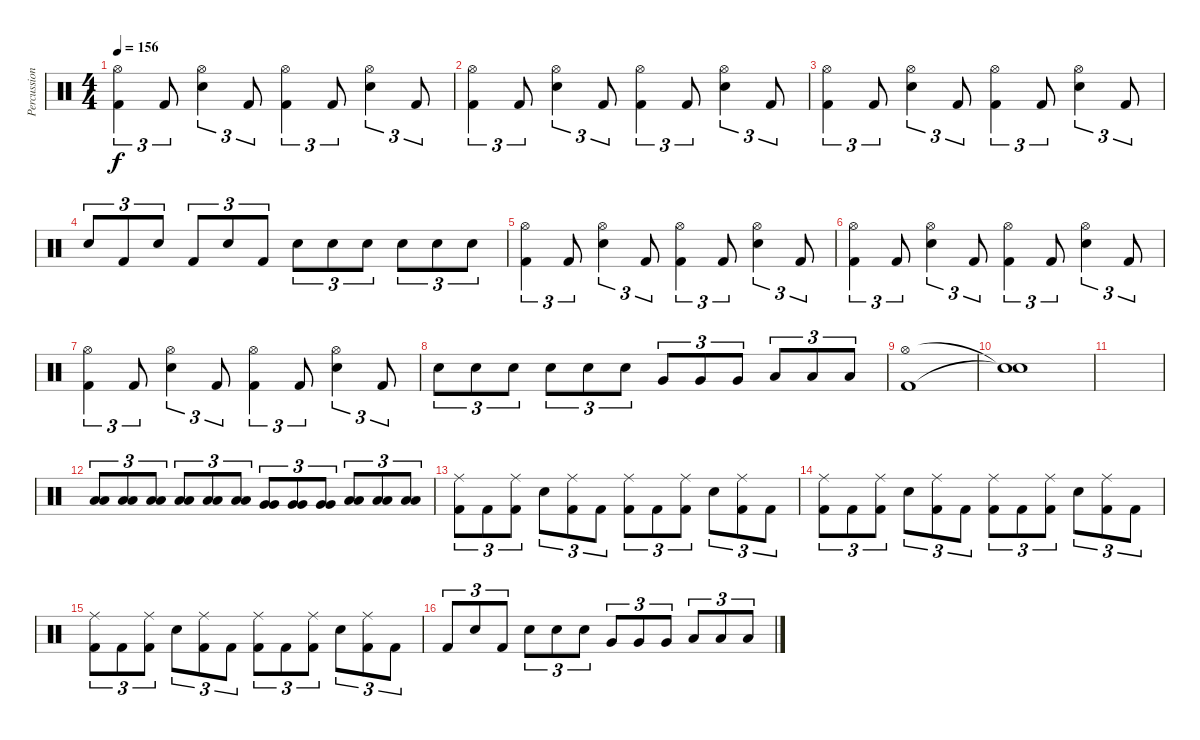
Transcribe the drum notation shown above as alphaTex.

\track ("Percussion" "Percussion") {instrument percussion}
\staff {score}
\articulation defaults
\ts (4 4)
\tempo 156
\clef neutral
\ks c
("Hi-Hat (open)" "Kick (hit) 2").4{tu (3 2) dy f} "Kick (hit) 2".8{tu (3 2)} ("Electric Snare (hit)" "Hi-Hat (open)").4{tu (3 2)} "Kick (hit) 2".8{tu (3 2)} ("Hi-Hat (open)" "Kick (hit) 2").4{tu (3 2)} "Kick (hit) 2".8{tu (3 2)} ("Electric Snare (hit)" "Hi-Hat (open)").4{tu (3 2)} "Kick (hit) 2".8{tu (3 2)} |
("Hi-Hat (open)" "Kick (hit) 2").4{tu (3 2)} "Kick (hit) 2".8{tu (3 2)} ("Electric Snare (hit)" "Hi-Hat (open)").4{tu (3 2)} "Kick (hit) 2".8{tu (3 2)} ("Hi-Hat (open)" "Kick (hit) 2").4{tu (3 2)} "Kick (hit) 2".8{tu (3 2)} ("Electric Snare (hit)" "Hi-Hat (open)").4{tu (3 2)} "Kick (hit) 2".8{tu (3 2)} |
("Hi-Hat (open)" "Kick (hit) 2").4{tu (3 2)} "Kick (hit) 2".8{tu (3 2)} ("Electric Snare (hit)" "Hi-Hat (open)").4{tu (3 2)} "Kick (hit) 2".8{tu (3 2)} ("Hi-Hat (open)" "Kick (hit) 2").4{tu (3 2)} "Kick (hit) 2".8{tu (3 2)} ("Electric Snare (hit)" "Hi-Hat (open)").4{tu (3 2)} "Kick (hit) 2".8{tu (3 2)} |
"Electric Snare (hit)".8{tu (3 2)} "Kick (hit) 2".8{tu (3 2)} "Electric Snare (hit)".8{tu (3 2)} "Kick (hit) 2".8{tu (3 2)} "Electric Snare (hit)".8{tu (3 2)} "Kick (hit) 2".8{tu (3 2)} "Electric Snare (hit)".8{tu (3 2)} "Electric Snare (hit)".8{tu (3 2)} "Electric Snare (hit)".8{tu (3 2)} "Electric Snare (hit)".8{tu (3 2)} "Electric Snare (hit)".8{tu (3 2)} "Electric Snare (hit)".8{tu (3 2)} |
("Hi-Hat (open)" "Kick (hit) 2").4{tu (3 2)} "Kick (hit) 2".8{tu (3 2)} ("Electric Snare (hit)" "Hi-Hat (open)").4{tu (3 2)} "Kick (hit) 2".8{tu (3 2)} ("Hi-Hat (open)" "Kick (hit) 2").4{tu (3 2)} "Kick (hit) 2".8{tu (3 2)} ("Electric Snare (hit)" "Hi-Hat (open)").4{tu (3 2)} "Kick (hit) 2".8{tu (3 2)} |
("Hi-Hat (open)" "Kick (hit) 2").4{tu (3 2)} "Kick (hit) 2".8{tu (3 2)} ("Electric Snare (hit)" "Hi-Hat (open)").4{tu (3 2)} "Kick (hit) 2".8{tu (3 2)} ("Hi-Hat (open)" "Kick (hit) 2").4{tu (3 2)} "Kick (hit) 2".8{tu (3 2)} ("Electric Snare (hit)" "Hi-Hat (open)").4{tu (3 2)} "Kick (hit) 2".8{tu (3 2)} |
("Hi-Hat (open)" "Kick (hit) 2").4{tu (3 2)} "Kick (hit) 2".8{tu (3 2)} ("Electric Snare (hit)" "Hi-Hat (open)").4{tu (3 2)} "Kick (hit) 2".8{tu (3 2)} ("Hi-Hat (open)" "Kick (hit) 2").4{tu (3 2)} "Kick (hit) 2".8{tu (3 2)} ("Electric Snare (hit)" "Hi-Hat (open)").4{tu (3 2)} "Kick (hit) 2".8{tu (3 2)} |
"Electric Snare (hit)".8{tu (3 2)} "Electric Snare (hit)".8{tu (3 2)} "Electric Snare (hit)".8{tu (3 2)} "Electric Snare (hit)".8{tu (3 2)} "Electric Snare (hit)".8{tu (3 2)} "Electric Snare (hit)".8{tu (3 2)} "Very Low Tom (hit)".8{tu (3 2)} "Very Low Tom (hit)".8{tu (3 2)} "Very Low Tom (hit)".8{tu (3 2)} "Low Floor Tom (hit)".8{tu (3 2)} "Low Floor Tom (hit)".8{tu (3 2)} "Low Floor Tom (hit)".8{tu (3 2)} |
("Hi-Hat (open)" "Kick (hit) 2").1 |
("Snare (hit)"{t} "Snare (hit)"{t}).1 |
|
("Low Tom (hit)" "Low Tom (hit)").8{tu (3 2)} ("Low Tom (hit)" "Low Tom (hit)").8{tu (3 2)} ("Low Tom (hit)" "Low Tom (hit)").8{tu (3 2)} ("Low Tom (hit)" "Low Tom (hit)").8{tu (3 2)} ("Low Tom (hit)" "Low Tom (hit)").8{tu (3 2)} ("Low Tom (hit)" "Low Tom (hit)").8{tu (3 2)} ("Very Low Tom (hit)" "Very Low Tom (hit)").8{tu (3 2)} ("Very Low Tom (hit)" "Very Low Tom (hit)").8{tu (3 2)} ("Very Low Tom (hit)" "Very Low Tom (hit)").8{tu (3 2)} ("Low Floor Tom (hit)" "Low Floor Tom (hit)").8{tu (3 2)} ("Low Floor Tom (hit)" "Low Floor Tom (hit)").8{tu (3 2)} ("Low Floor Tom (hit)" "Low Floor Tom (hit)").8{tu (3 2)} |
("Ride (middle)" "Kick (hit) 2").8{tu (3 2)} "Kick (hit) 2".8{tu (3 2)} ("Ride (middle)" "Kick (hit) 2").8{tu (3 2)} "Electric Snare (hit)".8{tu (3 2)} ("Ride (middle)" "Kick (hit) 2").8{tu (3 2)} "Kick (hit) 2".8{tu (3 2)} ("Ride (middle)" "Kick (hit) 2").8{tu (3 2)} "Kick (hit) 2".8{tu (3 2)} ("Ride (middle)" "Kick (hit) 2").8{tu (3 2)} "Electric Snare (hit)".8{tu (3 2)} ("Ride (middle)" "Kick (hit) 2").8{tu (3 2)} "Kick (hit) 2".8{tu (3 2)} |
("Ride (middle)" "Kick (hit) 2").8{tu (3 2)} "Kick (hit) 2".8{tu (3 2)} ("Ride (middle)" "Kick (hit) 2").8{tu (3 2)} "Electric Snare (hit)".8{tu (3 2)} ("Ride (middle)" "Kick (hit) 2").8{tu (3 2)} "Kick (hit) 2".8{tu (3 2)} ("Ride (middle)" "Kick (hit) 2").8{tu (3 2)} "Kick (hit) 2".8{tu (3 2)} ("Ride (middle)" "Kick (hit) 2").8{tu (3 2)} "Electric Snare (hit)".8{tu (3 2)} ("Ride (middle)" "Kick (hit) 2").8{tu (3 2)} "Kick (hit) 2".8{tu (3 2)} |
("Ride (middle)" "Kick (hit) 2").8{tu (3 2)} "Kick (hit) 2".8{tu (3 2)} ("Ride (middle)" "Kick (hit) 2").8{tu (3 2)} "Electric Snare (hit)".8{tu (3 2)} ("Ride (middle)" "Kick (hit) 2").8{tu (3 2)} "Kick (hit) 2".8{tu (3 2)} ("Ride (middle)" "Kick (hit) 2").8{tu (3 2)} "Kick (hit) 2".8{tu (3 2)} ("Ride (middle)" "Kick (hit) 2").8{tu (3 2)} "Electric Snare (hit)".8{tu (3 2)} ("Ride (middle)" "Kick (hit) 2").8{tu (3 2)} "Kick (hit) 2".8{tu (3 2)} |
"Kick (hit) 2".8{tu (3 2)} "Electric Snare (hit)".8{tu (3 2)} "Kick (hit) 2".8{tu (3 2)} "Electric Snare (hit)".8{tu (3 2)} "Electric Snare (hit)".8{tu (3 2)} "Electric Snare (hit)".8{tu (3 2)} "Very Low Tom (hit)".8{tu (3 2)} "Very Low Tom (hit)".8{tu (3 2)} "Very Low Tom (hit)".8{tu (3 2)} "Low Floor Tom (hit)".8{tu (3 2)} "Low Floor Tom (hit)".8{tu (3 2)} "Low Floor Tom (hit)".8{tu (3 2)}
